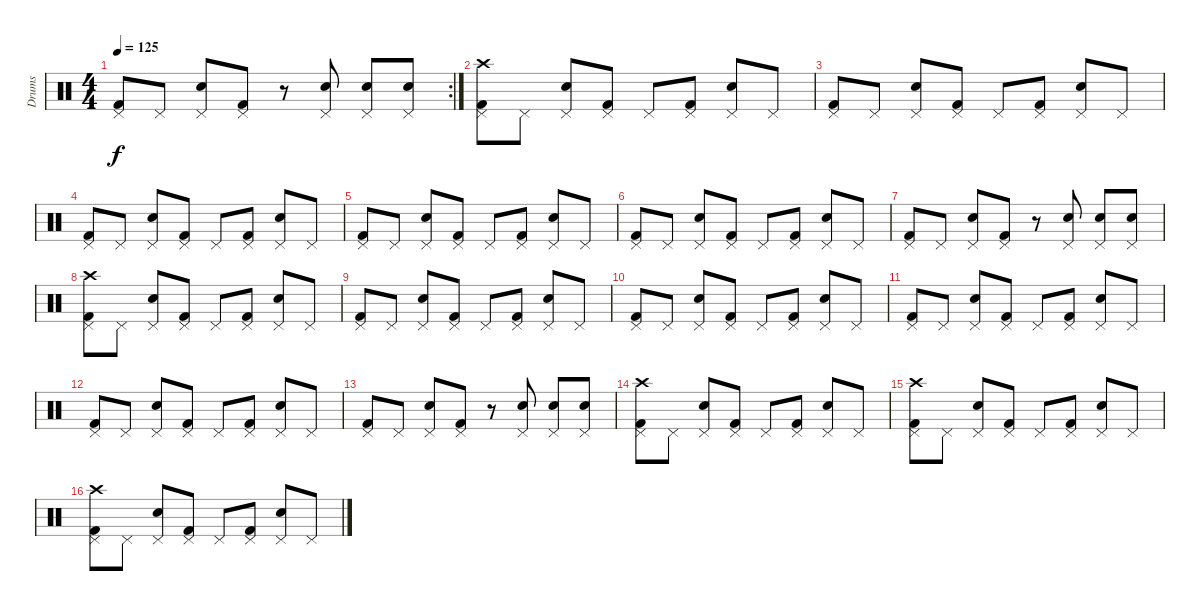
\track ("Drums" "Drums") {instrument percussion}
\staff {score}
\articulation defaults
\rc 2
\ts (4 4)
\tempo 125
\clef neutral
\ks c
("Kick (hit) 2" "Pedal Hi-Hat (hit)").8{dy f} "Pedal Hi-Hat (hit)".8 ("Pedal Hi-Hat (hit)" "Snare (hit) 2").8 ("Pedal Hi-Hat (hit)" "Kick (hit) 2").8 r.8 ("Snare (hit) 2" "Pedal Hi-Hat (hit)").8 ("Snare (hit) 2" "Pedal Hi-Hat (hit)").8 ("Snare (hit) 2" "Pedal Hi-Hat (hit)").8 |
("Kick (hit) 2" "Pedal Hi-Hat (hit)" "Crash high (hit)").8 "Pedal Hi-Hat (hit)".8 ("Pedal Hi-Hat (hit)" "Snare (hit) 2").8 ("Pedal Hi-Hat (hit)" "Kick (hit) 2").8 "Pedal Hi-Hat (hit)".8 ("Kick (hit) 2" "Pedal Hi-Hat (hit)").8 ("Snare (hit) 2" "Pedal Hi-Hat (hit)").8 "Pedal Hi-Hat (hit)".8 |
("Kick (hit) 2" "Pedal Hi-Hat (hit)").8 "Pedal Hi-Hat (hit)".8 ("Pedal Hi-Hat (hit)" "Snare (hit) 2").8 ("Pedal Hi-Hat (hit)" "Kick (hit) 2").8 "Pedal Hi-Hat (hit)".8 ("Kick (hit) 2" "Pedal Hi-Hat (hit)").8 ("Snare (hit) 2" "Pedal Hi-Hat (hit)").8 "Pedal Hi-Hat (hit)".8 |
("Kick (hit) 2" "Pedal Hi-Hat (hit)").8 "Pedal Hi-Hat (hit)".8 ("Pedal Hi-Hat (hit)" "Snare (hit) 2").8 ("Pedal Hi-Hat (hit)" "Kick (hit) 2").8 "Pedal Hi-Hat (hit)".8 ("Kick (hit) 2" "Pedal Hi-Hat (hit)").8 ("Snare (hit) 2" "Pedal Hi-Hat (hit)").8 "Pedal Hi-Hat (hit)".8 |
("Kick (hit) 2" "Pedal Hi-Hat (hit)").8 "Pedal Hi-Hat (hit)".8 ("Pedal Hi-Hat (hit)" "Snare (hit) 2").8 ("Pedal Hi-Hat (hit)" "Kick (hit) 2").8 "Pedal Hi-Hat (hit)".8 ("Kick (hit) 2" "Pedal Hi-Hat (hit)").8 ("Snare (hit) 2" "Pedal Hi-Hat (hit)").8 "Pedal Hi-Hat (hit)".8 |
("Kick (hit) 2" "Pedal Hi-Hat (hit)").8 "Pedal Hi-Hat (hit)".8 ("Pedal Hi-Hat (hit)" "Snare (hit) 2").8 ("Pedal Hi-Hat (hit)" "Kick (hit) 2").8 "Pedal Hi-Hat (hit)".8 ("Kick (hit) 2" "Pedal Hi-Hat (hit)").8 ("Snare (hit) 2" "Pedal Hi-Hat (hit)").8 "Pedal Hi-Hat (hit)".8 |
("Kick (hit) 2" "Pedal Hi-Hat (hit)").8 "Pedal Hi-Hat (hit)".8 ("Pedal Hi-Hat (hit)" "Snare (hit) 2").8 ("Pedal Hi-Hat (hit)" "Kick (hit) 2").8 r.8 ("Snare (hit) 2" "Pedal Hi-Hat (hit)").8 ("Snare (hit) 2" "Pedal Hi-Hat (hit)").8 ("Snare (hit) 2" "Pedal Hi-Hat (hit)").8 |
("Kick (hit) 2" "Pedal Hi-Hat (hit)" "Crash high (hit)").8 "Pedal Hi-Hat (hit)".8 ("Pedal Hi-Hat (hit)" "Snare (hit) 2").8 ("Pedal Hi-Hat (hit)" "Kick (hit) 2").8 "Pedal Hi-Hat (hit)".8 ("Kick (hit) 2" "Pedal Hi-Hat (hit)").8 ("Snare (hit) 2" "Pedal Hi-Hat (hit)").8 "Pedal Hi-Hat (hit)".8 |
("Kick (hit) 2" "Pedal Hi-Hat (hit)").8 "Pedal Hi-Hat (hit)".8 ("Pedal Hi-Hat (hit)" "Snare (hit) 2").8 ("Pedal Hi-Hat (hit)" "Kick (hit) 2").8 "Pedal Hi-Hat (hit)".8 ("Kick (hit) 2" "Pedal Hi-Hat (hit)").8 ("Snare (hit) 2" "Pedal Hi-Hat (hit)").8 "Pedal Hi-Hat (hit)".8 |
("Kick (hit) 2" "Pedal Hi-Hat (hit)").8 "Pedal Hi-Hat (hit)".8 ("Pedal Hi-Hat (hit)" "Snare (hit) 2").8 ("Pedal Hi-Hat (hit)" "Kick (hit) 2").8 "Pedal Hi-Hat (hit)".8 ("Kick (hit) 2" "Pedal Hi-Hat (hit)").8 ("Snare (hit) 2" "Pedal Hi-Hat (hit)").8 "Pedal Hi-Hat (hit)".8 |
("Kick (hit) 2" "Pedal Hi-Hat (hit)").8 "Pedal Hi-Hat (hit)".8 ("Pedal Hi-Hat (hit)" "Snare (hit) 2").8 ("Pedal Hi-Hat (hit)" "Kick (hit) 2").8 "Pedal Hi-Hat (hit)".8 ("Kick (hit) 2" "Pedal Hi-Hat (hit)").8 ("Snare (hit) 2" "Pedal Hi-Hat (hit)").8 "Pedal Hi-Hat (hit)".8 |
("Kick (hit) 2" "Pedal Hi-Hat (hit)").8 "Pedal Hi-Hat (hit)".8 ("Pedal Hi-Hat (hit)" "Snare (hit) 2").8 ("Pedal Hi-Hat (hit)" "Kick (hit) 2").8 "Pedal Hi-Hat (hit)".8 ("Kick (hit) 2" "Pedal Hi-Hat (hit)").8 ("Snare (hit) 2" "Pedal Hi-Hat (hit)").8 "Pedal Hi-Hat (hit)".8 |
("Kick (hit) 2" "Pedal Hi-Hat (hit)").8 "Pedal Hi-Hat (hit)".8 ("Pedal Hi-Hat (hit)" "Snare (hit) 2").8 ("Pedal Hi-Hat (hit)" "Kick (hit) 2").8 r.8 ("Snare (hit) 2" "Pedal Hi-Hat (hit)").8 ("Snare (hit) 2" "Pedal Hi-Hat (hit)").8 ("Snare (hit) 2" "Pedal Hi-Hat (hit)").8 |
("Kick (hit) 2" "Pedal Hi-Hat (hit)" "Crash high (hit)").8 "Pedal Hi-Hat (hit)".8 ("Pedal Hi-Hat (hit)" "Snare (hit) 2").8 ("Pedal Hi-Hat (hit)" "Kick (hit) 2").8 "Pedal Hi-Hat (hit)".8 ("Kick (hit) 2" "Pedal Hi-Hat (hit)").8 ("Snare (hit) 2" "Pedal Hi-Hat (hit)").8 "Pedal Hi-Hat (hit)".8 |
("Kick (hit) 2" "Pedal Hi-Hat (hit)" "Crash high (hit)").8 "Pedal Hi-Hat (hit)".8 ("Pedal Hi-Hat (hit)" "Snare (hit) 2").8 ("Pedal Hi-Hat (hit)" "Kick (hit) 2").8 "Pedal Hi-Hat (hit)".8 ("Kick (hit) 2" "Pedal Hi-Hat (hit)").8 ("Snare (hit) 2" "Pedal Hi-Hat (hit)").8 "Pedal Hi-Hat (hit)".8 |
("Kick (hit) 2" "Pedal Hi-Hat (hit)" "Crash high (hit)").8 "Pedal Hi-Hat (hit)".8 ("Pedal Hi-Hat (hit)" "Snare (hit) 2").8 ("Pedal Hi-Hat (hit)" "Kick (hit) 2").8 "Pedal Hi-Hat (hit)".8 ("Kick (hit) 2" "Pedal Hi-Hat (hit)").8 ("Snare (hit) 2" "Pedal Hi-Hat (hit)").8 "Pedal Hi-Hat (hit)".8
